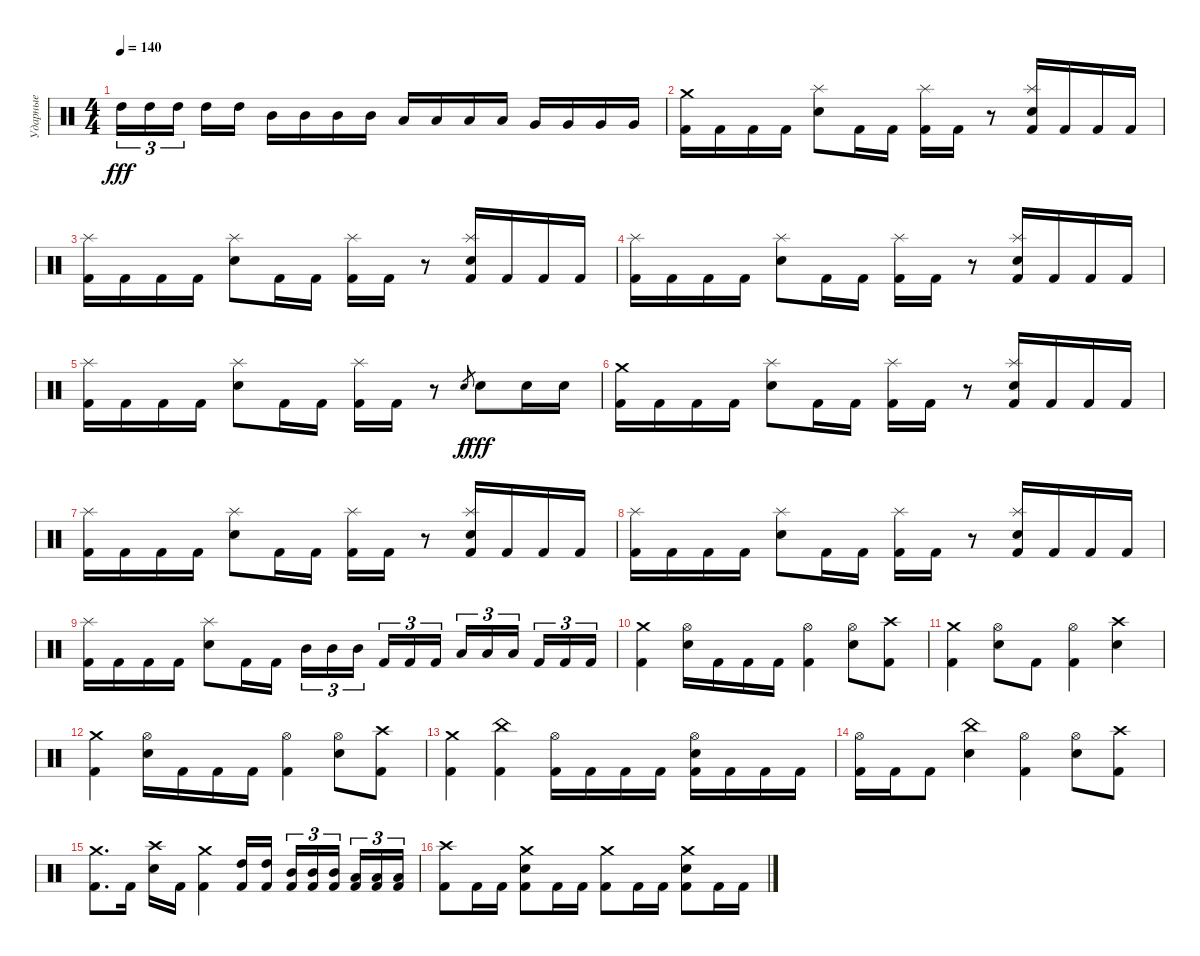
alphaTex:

\track ("Ударные" "Ударные") {instrument percussion}
\staff {score}
\articulation defaults
\ts (4 4)
\tempo 140
\clef neutral
\ks c "High Tom (hit)".16{tu (3 2) dy fff} "High Tom (hit)".16{tu (3 2)} "High Tom (hit)".16{tu (3 2) beam splitsecondary} "High Tom (hit)".16 "High Tom (hit)".16 "Mid Tom (hit)".16 "Mid Tom (hit)".16 "Mid Tom (hit)".16 "Mid Tom (hit)".16 "Low Tom (hit)".16 "Low Tom (hit)".16 "Low Tom (hit)".16 "Low Tom (hit)".16 "Very Low Tom (hit)".16 "Very Low Tom (hit)".16 "Very Low Tom (hit)".16 "Very Low Tom (hit)".16
|
("Crash medium (hit)" "Kick (hit) 2").16 "Kick (hit) 2".16 "Kick (hit) 2".16 "Kick (hit) 2".16 ("Splash (hit)" "Electric Snare (hit)").8 "Kick (hit) 2".16 "Kick (hit) 2".16 ("Splash (hit)" "Kick (hit) 2").16 "Kick (hit) 2".16 r.8 ("Splash (hit)" "Electric Snare (hit)" "Kick (hit) 2").16 "Kick (hit) 2".16 "Kick (hit) 2".16 "Kick (hit) 2".16 |
("Splash (hit)" "Kick (hit) 2").16 "Kick (hit) 2".16 "Kick (hit) 2".16 "Kick (hit) 2".16 ("Splash (hit)" "Electric Snare (hit)").8 "Kick (hit) 2".16 "Kick (hit) 2".16 ("Splash (hit)" "Kick (hit) 2").16 "Kick (hit) 2".16 r.8 ("Splash (hit)" "Electric Snare (hit)" "Kick (hit) 2").16 "Kick (hit) 2".16 "Kick (hit) 2".16 "Kick (hit) 2".16 |
("Splash (hit)" "Kick (hit) 2").16 "Kick (hit) 2".16 "Kick (hit) 2".16 "Kick (hit) 2".16 ("Splash (hit)" "Electric Snare (hit)").8 "Kick (hit) 2".16 "Kick (hit) 2".16 ("Splash (hit)" "Kick (hit) 2").16 "Kick (hit) 2".16 r.8 ("Splash (hit)" "Electric Snare (hit)" "Kick (hit) 2").16 "Kick (hit) 2".16 "Kick (hit) 2".16 "Kick (hit) 2".16 |
("Splash (hit)" "Kick (hit) 2").16 "Kick (hit) 2".16 "Kick (hit) 2".16 "Kick (hit) 2".16 ("Splash (hit)" "Electric Snare (hit)").8 "Kick (hit) 2".16 "Kick (hit) 2".16 ("Splash (hit)" "Kick (hit) 2").16 "Kick (hit) 2".16 r.8 "Electric Snare (hit)".8{gr dy f} "Electric Snare (hit)".8{dy fff} "Electric Snare (hit)".16 "Electric Snare (hit)".16 |
("Crash medium (hit)" "Kick (hit) 2").16 "Kick (hit) 2".16 "Kick (hit) 2".16 "Kick (hit) 2".16 ("Splash (hit)" "Electric Snare (hit)").8 "Kick (hit) 2".16 "Kick (hit) 2".16 ("Splash (hit)" "Kick (hit) 2").16 "Kick (hit) 2".16 r.8 ("Splash (hit)" "Electric Snare (hit)" "Kick (hit) 2").16 "Kick (hit) 2".16 "Kick (hit) 2".16 "Kick (hit) 2".16 |
("Splash (hit)" "Kick (hit) 2").16 "Kick (hit) 2".16 "Kick (hit) 2".16 "Kick (hit) 2".16 ("Splash (hit)" "Electric Snare (hit)").8 "Kick (hit) 2".16 "Kick (hit) 2".16 ("Splash (hit)" "Kick (hit) 2").16 "Kick (hit) 2".16 r.8 ("Splash (hit)" "Electric Snare (hit)" "Kick (hit) 2").16 "Kick (hit) 2".16 "Kick (hit) 2".16 "Kick (hit) 2".16 |
("Splash (hit)" "Kick (hit) 2").16 "Kick (hit) 2".16 "Kick (hit) 2".16 "Kick (hit) 2".16 ("Splash (hit)" "Electric Snare (hit)").8 "Kick (hit) 2".16 "Kick (hit) 2".16 ("Splash (hit)" "Kick (hit) 2").16 "Kick (hit) 2".16 r.8 ("Splash (hit)" "Electric Snare (hit)" "Kick (hit) 2").16 "Kick (hit) 2".16 "Kick (hit) 2".16 "Kick (hit) 2".16 |
("Splash (hit)" "Kick (hit) 2").16 "Kick (hit) 2".16 "Kick (hit) 2".16 "Kick (hit) 2".16 ("Splash (hit)" "Electric Snare (hit)").8 "Kick (hit) 2".16 "Kick (hit) 2".16 "Mid Tom (hit)".16{tu (3 2)} "Mid Tom (hit)".16{tu (3 2)} "Mid Tom (hit)".16{tu (3 2) beam splitsecondary} "Kick (hit) 2".16{tu (3 2)} "Kick (hit) 2".16{tu (3 2)} "Kick (hit) 2".16{tu (3 2)} "Low Tom (hit)".16{tu (3 2)} "Low Tom (hit)".16{tu (3 2)} "Low Tom (hit)".16{tu (3 2) beam splitsecondary} "Kick (hit) 2".16{tu (3 2)} "Kick (hit) 2".16{tu (3 2)} "Kick (hit) 2".16{tu (3 2)} |
("Kick (hit) 2" "Crash medium (hit)").4 ("Electric Snare (hit)" "Hi-Hat (open)").16 "Kick (hit) 2".16 "Kick (hit) 2".16 "Kick (hit) 2".16 ("Kick (hit) 2" "Hi-Hat (open)").4 ("Electric Snare (hit)" "Hi-Hat (open)").8 ("Kick (hit) 2" "Crash high (hit)").8 |
("Kick (hit) 2" "Crash medium (hit)").4 ("Electric Snare (hit)" "Hi-Hat (open)").8 "Kick (hit) 2".8 ("Kick (hit) 2" "Hi-Hat (open)").4 ("Electric Snare (hit)" "Crash high (hit)").4 |
("Kick (hit) 2" "Crash medium (hit)").4 ("Electric Snare (hit)" "Hi-Hat (open)").16 "Kick (hit) 2".16 "Kick (hit) 2".16 "Kick (hit) 2".16 ("Kick (hit) 2" "Hi-Hat (open)").4 ("Electric Snare (hit)" "Hi-Hat (open)").8 ("Kick (hit) 2" "Crash high (hit)").8 |
("Kick (hit) 2" "Crash medium (hit)").4 ("Kick (hit) 2" "China (hit)").4 ("Kick (hit) 2" "Hi-Hat (open)").16 "Kick (hit) 2".16 "Kick (hit) 2".16 "Kick (hit) 2".16 ("Kick (hit) 2" "Electric Snare (hit)" "Hi-Hat (open)").16 "Kick (hit) 2".16 "Kick (hit) 2".16 "Kick (hit) 2".16 |
("Kick (hit) 2" "Hi-Hat (open)").16 "Kick (hit) 2".16 "Kick (hit) 2".8 ("Electric Snare (hit)" "China (hit)").4 ("Kick (hit) 2" "Hi-Hat (open)").4 ("Electric Snare (hit)" "Hi-Hat (open)").8 ("Kick (hit) 2" "Crash high (hit)").8 |
("Kick (hit) 2" "Crash medium (hit)").8{d} "Kick (hit) 2".16 ("Crash high (hit)" "Electric Snare (hit)").16 "Kick (hit) 2".16 ("Crash medium (hit)" "Kick (hit) 2").4 ("High Tom (hit)" "Kick (hit) 2").16 ("High Tom (hit)" "Kick (hit) 2").16 ("Mid Tom (hit)" "Kick (hit) 2").16{tu (3 2)} ("Mid Tom (hit)" "Kick (hit) 2").16{tu (3 2)} ("Mid Tom (hit)" "Kick (hit) 2").16{tu (3 2) beam splitsecondary} ("Low Tom (hit)" "Kick (hit) 2").16{tu (3 2)} ("Low Tom (hit)" "Kick (hit) 2").16{tu (3 2)} ("Low Tom (hit)" "Kick (hit) 2").16{tu (3 2)} |
("Crash high (hit)" "Kick (hit) 2").8 "Kick (hit) 2".16 "Kick (hit) 2".16 ("Crash medium (hit)" "Electric Snare (hit)" "Kick (hit) 2").8 "Kick (hit) 2".16 "Kick (hit) 2".16 ("Crash medium (hit)" "Kick (hit) 2").8 "Kick (hit) 2".16 "Kick (hit) 2".16 ("Crash medium (hit)" "Electric Snare (hit)" "Kick (hit) 2").8 "Kick (hit) 2".16 "Kick (hit) 2".16
